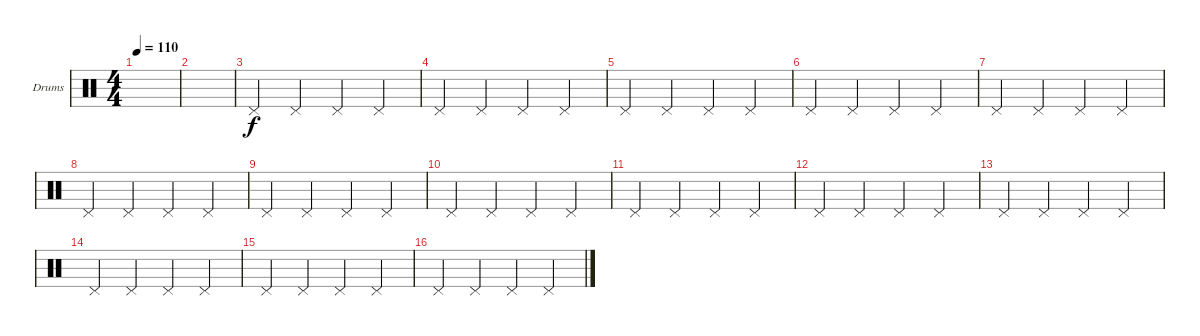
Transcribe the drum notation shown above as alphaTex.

\defaultSystemsLayout 4
\bracketExtendMode groupsimilarinstruments
\firstSystemTrackNameOrientation horizontal
\otherSystemsTrackNameOrientation horizontal
\track ("Drumkit" "Drums") {instrument percussion}
\staff {score}
\articulation defaults
\ts (4 4)
\tempo 110
\clef neutral
\scale
0.474178
\ks c
|
\scale
0.262911 |
\scale
0.333333 "Pedal Hi-Hat (hit)".4 "Pedal Hi-Hat (hit)".4 "Pedal Hi-Hat (hit)".4 "Pedal Hi-Hat (hit)".4 |
\scale
0.333333 "Pedal Hi-Hat (hit)".4 "Pedal Hi-Hat (hit)".4 "Pedal Hi-Hat (hit)".4 "Pedal Hi-Hat (hit)".4 |
\scale
0.333333 "Pedal Hi-Hat (hit)".4 "Pedal Hi-Hat (hit)".4 "Pedal Hi-Hat (hit)".4 "Pedal Hi-Hat (hit)".4 |
\scale
0.333333 "Pedal Hi-Hat (hit)".4 "Pedal Hi-Hat (hit)".4 "Pedal Hi-Hat (hit)".4 "Pedal Hi-Hat (hit)".4 |
\scale
0.333333 "Pedal Hi-Hat (hit)".4 "Pedal Hi-Hat (hit)".4 "Pedal Hi-Hat (hit)".4 "Pedal Hi-Hat (hit)".4 |
\scale
0.333333 "Pedal Hi-Hat (hit)".4 "Pedal Hi-Hat (hit)".4 "Pedal Hi-Hat (hit)".4 "Pedal Hi-Hat (hit)".4 |
\scale
0.333333 "Pedal Hi-Hat (hit)".4 "Pedal Hi-Hat (hit)".4 "Pedal Hi-Hat (hit)".4 "Pedal Hi-Hat (hit)".4 |
\scale
0.333333 "Pedal Hi-Hat (hit)".4 "Pedal Hi-Hat (hit)".4 "Pedal Hi-Hat (hit)".4 "Pedal Hi-Hat (hit)".4 |
\scale
0.333333 "Pedal Hi-Hat (hit)".4 "Pedal Hi-Hat (hit)".4 "Pedal Hi-Hat (hit)".4 "Pedal Hi-Hat (hit)".4 |
\scale
0.333333 "Pedal Hi-Hat (hit)".4 "Pedal Hi-Hat (hit)".4 "Pedal Hi-Hat (hit)".4 "Pedal Hi-Hat (hit)".4 |
\scale
0.333333 "Pedal Hi-Hat (hit)".4 "Pedal Hi-Hat (hit)".4 "Pedal Hi-Hat (hit)".4 "Pedal Hi-Hat (hit)".4 |
\scale
0.333333 "Pedal Hi-Hat (hit)".4 "Pedal Hi-Hat (hit)".4 "Pedal Hi-Hat (hit)".4 "Pedal Hi-Hat (hit)".4 |
\scale
0.333333 "Pedal Hi-Hat (hit)".4 "Pedal Hi-Hat (hit)".4 "Pedal Hi-Hat (hit)".4 "Pedal Hi-Hat (hit)".4 |
\scale
0.333333 "Pedal Hi-Hat (hit)".4 "Pedal Hi-Hat (hit)".4 "Pedal Hi-Hat (hit)".4 "Pedal Hi-Hat (hit)".4
